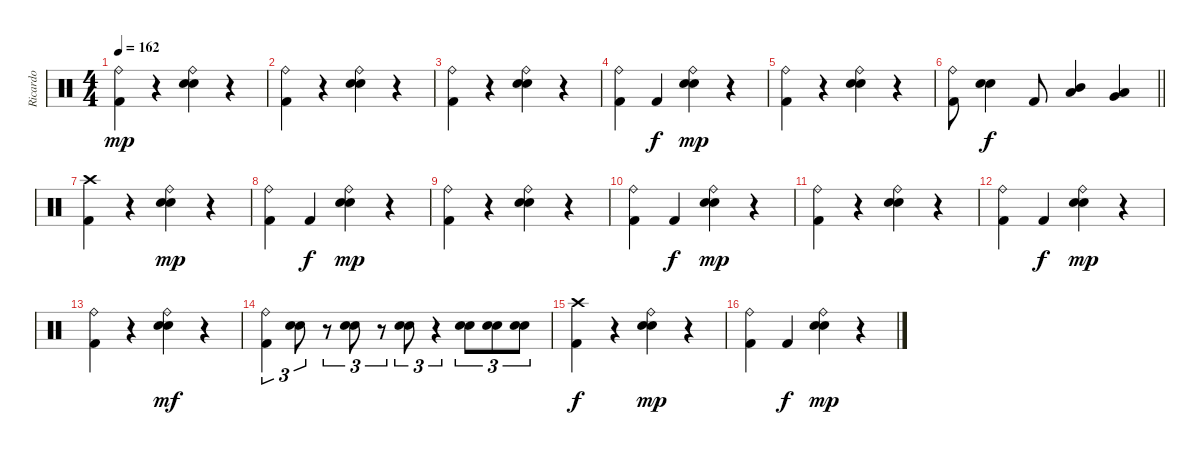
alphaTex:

\track ("Ricardo" "Ricardo") {instrument percussion}
\staff {score}
\articulation defaults
\ts (4 4)
\tempo 162
\clef neutral
\ks c
("Ride (bell)" "Kick (hit) 2").4{dy mp} r.4 ("Ride (bell)" "Electric Snare (hit)" "Snare (hit) 2").4 r.4 |
("Ride (bell)" "Kick (hit) 2").4 r.4 ("Ride (bell)" "Electric Snare (hit)" "Snare (hit) 2").4 r.4 |
("Ride (bell)" "Kick (hit) 2").4{volume 6} r.4 ("Ride (bell)" "Electric Snare (hit)" "Snare (hit) 2").4 r.4 |
("Ride (bell)" "Kick (hit) 2").4 "Kick (hit) 2".4{dy f} ("Ride (bell)" "Electric Snare (hit)" "Snare (hit) 2").4{dy mp} r.4 |
("Ride (bell)" "Kick (hit) 2").4 r.4 ("Ride (bell)" "Electric Snare (hit)" "Snare (hit) 2").4 r.4 |
\barLineRight lightlight
("Ride (bell)" "Kick (hit) 2").8 ("Electric Snare (hit)" "Snare (hit) 2").4{dy f} "Kick (hit) 2".8 ("Mid Tom (hit)" "Low Tom (hit)").4 ("Low Tom (hit)" "Very Low Tom (hit)").4 |
("Crash high (hit)" "Kick (hit) 2").4{volume 4} r.4 ("Ride (bell)" "Electric Snare (hit)" "Snare (hit) 2").4{dy mp} r.4 |
("Ride (bell)" "Kick (hit) 2").4 "Kick (hit) 2".4{dy f} ("Ride (bell)" "Electric Snare (hit)" "Snare (hit) 2").4{dy mp} r.4 |
("Ride (bell)" "Kick (hit) 2").4 r.4 ("Ride (bell)" "Electric Snare (hit)" "Snare (hit) 2").4 r.4 |
("Ride (bell)" "Kick (hit) 2").4 "Kick (hit) 2".4{dy f} ("Ride (bell)" "Electric Snare (hit)" "Snare (hit) 2").4{dy mp} r.4 |
("Ride (bell)" "Kick (hit) 2").4{volume 2} r.4 ("Ride (bell)" "Electric Snare (hit)" "Snare (hit) 2").4 r.4 |
("Ride (bell)" "Kick (hit) 2").4 "Kick (hit) 2".4{dy f} ("Ride (bell)" "Electric Snare (hit)" "Snare (hit) 2").4{dy mp} r.4 |
("Ride (bell)" "Kick (hit) 2").4 r.4 ("Ride (bell)" "Electric Snare (hit)" "Snare (hit) 2").4{dy mf} r.4 |
("Ride (bell)" "Kick (hit) 2").4{tu (3 2)} ("Electric Snare (hit)" "Snare (hit) 2").8{tu (3 2)} r.8{tu (3 2)} ("Electric Snare (hit)" "Snare (hit) 2").8{tu (3 2)} r.8{tu (3 2)} ("Electric Snare (hit)" "Snare (hit) 2").8{tu (3 2)} r.4{tu (3 2)} ("Electric Snare (hit)" "Snare (hit) 2").8{tu (3 2)} ("Electric Snare (hit)" "Snare (hit) 2").8{tu (3 2)} ("Electric Snare (hit)" "Snare (hit) 2").8{tu (3 2)} |
("Crash high (hit)" "Kick (hit) 2").4{dy f volume 0} r.4 ("Ride (bell)" "Electric Snare (hit)" "Snare (hit) 2").4{dy mp} r.4 |
("Ride (bell)" "Kick (hit) 2").4 "Kick (hit) 2".4{dy f} ("Ride (bell)" "Electric Snare (hit)" "Snare (hit) 2").4{dy mp} r.4
